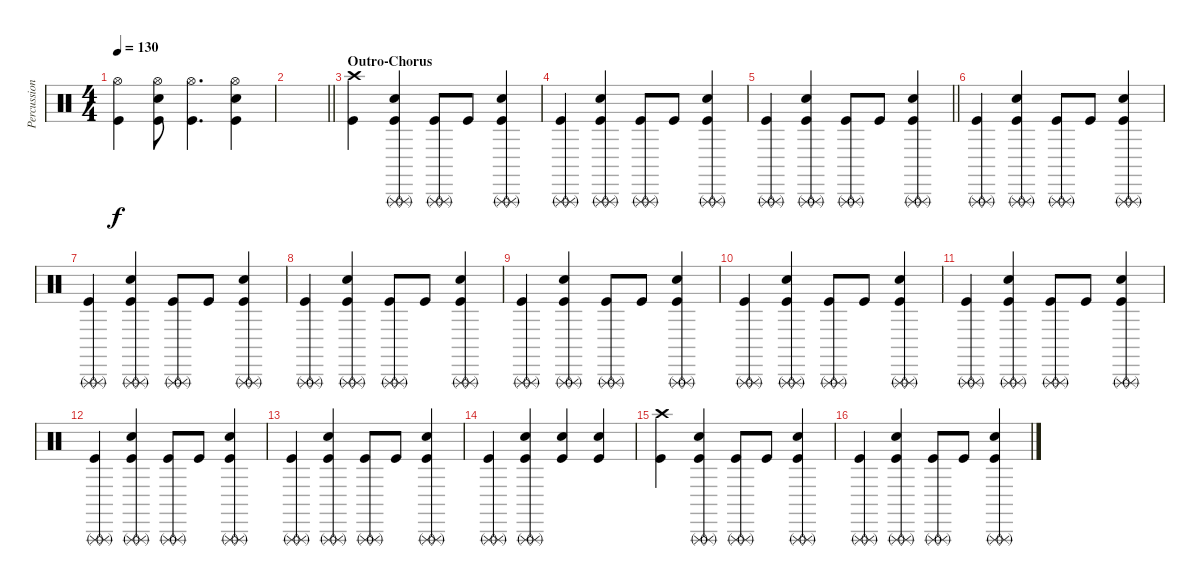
\track ("Percussion" "Percussion") {instrument percussion}
\staff {score}
\articulation defaults
\ts (4 4)
\tempo 130
\clef neutral
\ks c
("Hi-Hat (open)" "Kick (hit)").4{dy f} ("Hi-Hat (open)" "Snare (hit) 2" "Kick (hit)").8 ("Hi-Hat (open)" "Kick (hit)").4{d} ("Hi-Hat (open)" "Snare (hit) 2" "Kick (hit)").4 |
\barLineRight lightlight
|
\section ("" "Outro-Chorus")
("Crash high (hit)" "Kick (hit)").4 ("Triangle (rnute)" "Triangle (rnute)" "Snare (hit) 2" "Kick (hit)").4 ("Triangle (rnute)" "Triangle (rnute)" "Kick (hit)").8 "Kick (hit)".8 ("Triangle (rnute)" "Triangle (rnute)" "Snare (hit) 2" "Kick (hit)").4 |
("Triangle (rnute)" "Triangle (rnute)" "Kick (hit)").4 ("Triangle (rnute)" "Triangle (rnute)" "Snare (hit) 2" "Kick (hit)").4 ("Triangle (rnute)" "Triangle (rnute)" "Kick (hit)").8 "Kick (hit)".8 ("Triangle (rnute)" "Triangle (rnute)" "Snare (hit) 2" "Kick (hit)").4 |
\barLineRight lightlight
("Triangle (rnute)" "Triangle (rnute)" "Kick (hit)").4 ("Triangle (rnute)" "Triangle (rnute)" "Snare (hit) 2" "Kick (hit)").4 ("Triangle (rnute)" "Triangle (rnute)" "Kick (hit)").8 "Kick (hit)".8 ("Triangle (rnute)" "Triangle (rnute)" "Snare (hit) 2" "Kick (hit)").4 |
("Triangle (rnute)" "Triangle (rnute)" "Kick (hit)").4 ("Triangle (rnute)" "Triangle (rnute)" "Snare (hit) 2" "Kick (hit)").4 ("Triangle (rnute)" "Triangle (rnute)" "Kick (hit)").8 "Kick (hit)".8 ("Triangle (rnute)" "Triangle (rnute)" "Snare (hit) 2" "Kick (hit)").4 |
("Triangle (rnute)" "Triangle (rnute)" "Kick (hit)").4 ("Triangle (rnute)" "Triangle (rnute)" "Snare (hit) 2" "Kick (hit)").4 ("Triangle (rnute)" "Triangle (rnute)" "Kick (hit)").8 "Kick (hit)".8 ("Triangle (rnute)" "Triangle (rnute)" "Snare (hit) 2" "Kick (hit)").4 |
("Triangle (rnute)" "Triangle (rnute)" "Kick (hit)").4 ("Triangle (rnute)" "Triangle (rnute)" "Snare (hit) 2" "Kick (hit)").4 ("Triangle (rnute)" "Triangle (rnute)" "Kick (hit)").8 "Kick (hit)".8 ("Triangle (rnute)" "Triangle (rnute)" "Snare (hit) 2" "Kick (hit)").4 |
("Triangle (rnute)" "Triangle (rnute)" "Kick (hit)").4 ("Triangle (rnute)" "Triangle (rnute)" "Snare (hit) 2" "Kick (hit)").4 ("Triangle (rnute)" "Triangle (rnute)" "Kick (hit)").8 "Kick (hit)".8 ("Triangle (rnute)" "Triangle (rnute)" "Snare (hit) 2" "Kick (hit)").4 |
("Triangle (rnute)" "Triangle (rnute)" "Kick (hit)").4 ("Triangle (rnute)" "Triangle (rnute)" "Snare (hit) 2" "Kick (hit)").4 ("Triangle (rnute)" "Triangle (rnute)" "Kick (hit)").8 "Kick (hit)".8 ("Triangle (rnute)" "Triangle (rnute)" "Snare (hit) 2" "Kick (hit)").4 |
("Triangle (rnute)" "Triangle (rnute)" "Kick (hit)").4 ("Triangle (rnute)" "Triangle (rnute)" "Snare (hit) 2" "Kick (hit)").4 ("Triangle (rnute)" "Triangle (rnute)" "Kick (hit)").8 "Kick (hit)".8 ("Triangle (rnute)" "Triangle (rnute)" "Snare (hit) 2" "Kick (hit)").4 |
("Triangle (rnute)" "Triangle (rnute)" "Kick (hit)").4 ("Triangle (rnute)" "Triangle (rnute)" "Snare (hit) 2" "Kick (hit)").4 ("Triangle (rnute)" "Triangle (rnute)" "Kick (hit)").8 "Kick (hit)".8 ("Triangle (rnute)" "Triangle (rnute)" "Snare (hit) 2" "Kick (hit)").4 |
("Triangle (rnute)" "Triangle (rnute)" "Kick (hit)").4 ("Triangle (rnute)" "Triangle (rnute)" "Snare (hit) 2" "Kick (hit)").4 ("Triangle (rnute)" "Triangle (rnute)" "Kick (hit)").8 "Kick (hit)".8 ("Triangle (rnute)" "Triangle (rnute)" "Snare (hit) 2" "Kick (hit)").4 |
("Triangle (rnute)" "Triangle (rnute)" "Kick (hit)").4 ("Triangle (rnute)" "Triangle (rnute)" "Snare (hit) 2" "Kick (hit)").4 ("Snare (hit) 2" "Kick (hit)").4 ("Snare (hit) 2" "Kick (hit)").4 |
("Crash high (hit)" "Kick (hit)").4 ("Triangle (rnute)" "Triangle (rnute)" "Snare (hit) 2" "Kick (hit)").4 ("Triangle (rnute)" "Triangle (rnute)" "Kick (hit)").8 "Kick (hit)".8 ("Triangle (rnute)" "Triangle (rnute)" "Snare (hit) 2" "Kick (hit)").4 |
("Triangle (rnute)" "Triangle (rnute)" "Kick (hit)").4 ("Triangle (rnute)" "Triangle (rnute)" "Snare (hit) 2" "Kick (hit)").4 ("Triangle (rnute)" "Triangle (rnute)" "Kick (hit)").8 "Kick (hit)".8 ("Triangle (rnute)" "Triangle (rnute)" "Snare (hit) 2" "Kick (hit)").4
